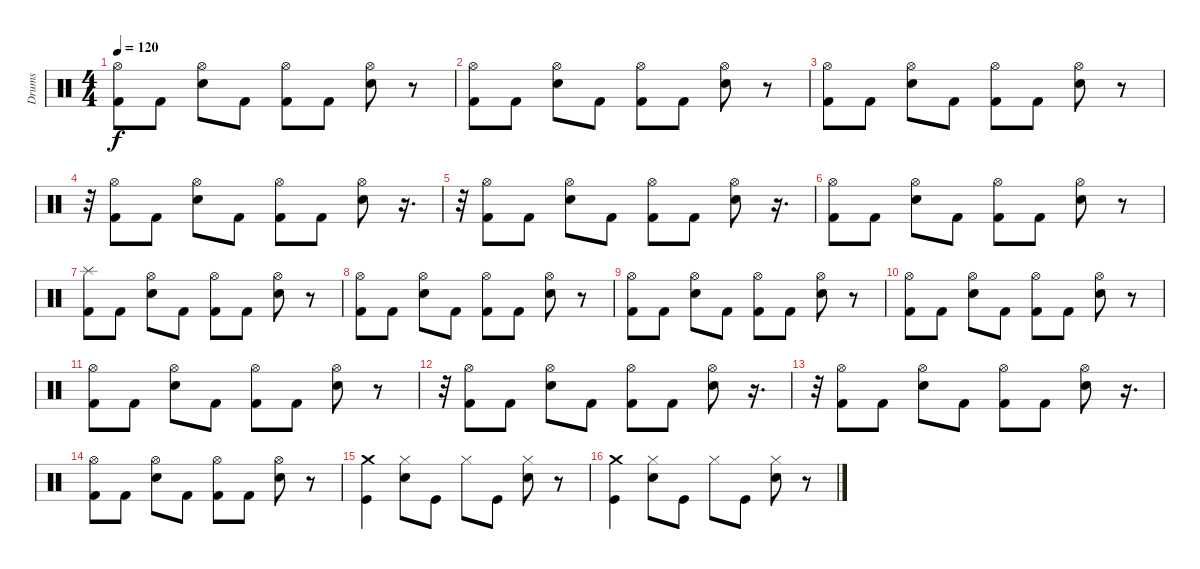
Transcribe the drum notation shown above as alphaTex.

\track ("Drums" "Drums") {instrument percussion}
\staff {score}
\articulation defaults
\ts (4 4)
\tempo 120
\clef neutral
\ks c
("Hi-Hat (open)" "Kick (hit) 2").8{dy f} "Kick (hit) 2".8 ("Hi-Hat (open)" "Electric Snare (hit)").8 "Kick (hit) 2".8 ("Hi-Hat (open)" "Kick (hit) 2").8 "Kick (hit) 2".8 ("Hi-Hat (open)" "Electric Snare (hit)").8 r.8 |
("Hi-Hat (open)" "Kick (hit) 2").8 "Kick (hit) 2".8 ("Hi-Hat (open)" "Electric Snare (hit)").8 "Kick (hit) 2".8 ("Hi-Hat (open)" "Kick (hit) 2").8 "Kick (hit) 2".8 ("Hi-Hat (open)" "Electric Snare (hit)").8 r.8 |
("Hi-Hat (open)" "Kick (hit) 2").8 "Kick (hit) 2".8 ("Hi-Hat (open)" "Electric Snare (hit)").8 "Kick (hit) 2".8 ("Hi-Hat (open)" "Kick (hit) 2").8 "Kick (hit) 2".8 ("Hi-Hat (open)" "Electric Snare (hit)").8 r.8 |
r.32 ("Hi-Hat (open)" "Kick (hit) 2").8 "Kick (hit) 2".8 ("Hi-Hat (open)" "Electric Snare (hit)").8 "Kick (hit) 2".8 ("Hi-Hat (open)" "Kick (hit) 2").8 "Kick (hit) 2".8 ("Hi-Hat (open)" "Electric Snare (hit)").8 r.16{d} |
r.32 ("Hi-Hat (open)" "Kick (hit) 2").8 "Kick (hit) 2".8 ("Hi-Hat (open)" "Electric Snare (hit)").8 "Kick (hit) 2".8 ("Hi-Hat (open)" "Kick (hit) 2").8 "Kick (hit) 2".8 ("Hi-Hat (open)" "Electric Snare (hit)").8 r.16{d} |
("Hi-Hat (open)" "Kick (hit) 2").8 "Kick (hit) 2".8 ("Hi-Hat (open)" "Electric Snare (hit)").8 "Kick (hit) 2".8 ("Hi-Hat (open)" "Kick (hit) 2").8 "Kick (hit) 2".8 ("Hi-Hat (open)" "Electric Snare (hit)").8 r.8 |
("Splash (hit)" "Kick (hit) 2").8 "Kick (hit) 2".8 ("Hi-Hat (open)" "Electric Snare (hit)").8 "Kick (hit) 2".8 ("Hi-Hat (open)" "Kick (hit) 2").8 "Kick (hit) 2".8 ("Hi-Hat (open)" "Electric Snare (hit)").8 r.8 |
("Hi-Hat (open)" "Kick (hit) 2").8 "Kick (hit) 2".8 ("Hi-Hat (open)" "Electric Snare (hit)").8 "Kick (hit) 2".8 ("Hi-Hat (open)" "Kick (hit) 2").8 "Kick (hit) 2".8 ("Hi-Hat (open)" "Electric Snare (hit)").8 r.8 |
("Hi-Hat (open)" "Kick (hit) 2").8 "Kick (hit) 2".8 ("Hi-Hat (open)" "Electric Snare (hit)").8 "Kick (hit) 2".8 ("Hi-Hat (open)" "Kick (hit) 2").8 "Kick (hit) 2".8 ("Hi-Hat (open)" "Electric Snare (hit)").8 r.8 |
("Hi-Hat (open)" "Kick (hit) 2").8 "Kick (hit) 2".8 ("Hi-Hat (open)" "Electric Snare (hit)").8 "Kick (hit) 2".8 ("Hi-Hat (open)" "Kick (hit) 2").8 "Kick (hit) 2".8 ("Hi-Hat (open)" "Electric Snare (hit)").8 r.8 |
("Hi-Hat (open)" "Kick (hit) 2").8 "Kick (hit) 2".8 ("Hi-Hat (open)" "Electric Snare (hit)").8 "Kick (hit) 2".8 ("Hi-Hat (open)" "Kick (hit) 2").8 "Kick (hit) 2".8 ("Hi-Hat (open)" "Electric Snare (hit)").8 r.8 |
r.32 ("Hi-Hat (open)" "Kick (hit) 2").8 "Kick (hit) 2".8 ("Hi-Hat (open)" "Electric Snare (hit)").8 "Kick (hit) 2".8 ("Hi-Hat (open)" "Kick (hit) 2").8 "Kick (hit) 2".8 ("Hi-Hat (open)" "Electric Snare (hit)").8 r.16{d} |
r.32 ("Hi-Hat (open)" "Kick (hit) 2").8 "Kick (hit) 2".8 ("Hi-Hat (open)" "Electric Snare (hit)").8 "Kick (hit) 2".8 ("Hi-Hat (open)" "Kick (hit) 2").8 "Kick (hit) 2".8 ("Hi-Hat (open)" "Electric Snare (hit)").8 r.16{d} |
("Hi-Hat (open)" "Kick (hit) 2").8 "Kick (hit) 2".8 ("Hi-Hat (open)" "Electric Snare (hit)").8 "Kick (hit) 2".8 ("Hi-Hat (open)" "Kick (hit) 2").8 "Kick (hit) 2".8 ("Hi-Hat (open)" "Electric Snare (hit)").8 r.8 |
("Crash medium (hit)" "Kick (hit)").4 ("Electric Snare (hit)" "Hi-Hat (closed)").8 "Kick (hit)".8 "Hi-Hat (closed)".8 "Kick (hit)".8 ("Electric Snare (hit)" "Hi-Hat (closed)").8 r.8 |
("Crash medium (hit)" "Kick (hit)").4 ("Electric Snare (hit)" "Hi-Hat (closed)").8 "Kick (hit)".8 "Hi-Hat (closed)".8 "Kick (hit)".8 ("Electric Snare (hit)" "Hi-Hat (closed)").8 r.8
